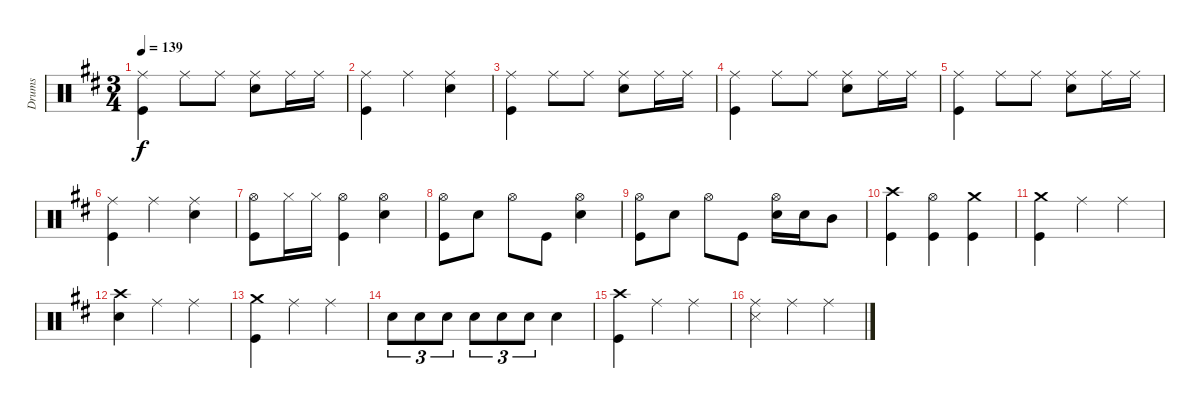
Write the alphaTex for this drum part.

\track ("Drums" "Drums") {instrument percussion}
\staff {score}
\articulation defaults
\ts (3 4)
\tempo 139
\clef neutral
\ks d
("Ride (middle)" "Kick (hit)").4{dy f} "Ride (middle)".8 "Ride (middle)".8 ("Ride (middle)" "Snare (hit) 2").8 "Ride (middle)".16 "Ride (middle)".16 |
("Ride (middle)" "Kick (hit)").4 "Ride (middle)".4 ("Ride (middle)" "Snare (hit) 2").4 |
("Ride (middle)" "Kick (hit)").4 "Ride (middle)".8 "Ride (middle)".8 ("Ride (middle)" "Snare (hit) 2").8 "Ride (middle)".16 "Ride (middle)".16 |
("Ride (middle)" "Kick (hit)").4 "Ride (middle)".8 "Ride (middle)".8 ("Ride (middle)" "Snare (hit) 2").8 "Ride (middle)".16 "Ride (middle)".16 |
("Ride (middle)" "Kick (hit)").4 "Ride (middle)".8 "Ride (middle)".8 ("Ride (middle)" "Snare (hit) 2").8 "Ride (middle)".16 "Ride (middle)".16 |
("Ride (middle)" "Kick (hit)").4 "Ride (middle)".4 ("Ride (middle)" "Snare (hit) 2").4 |
("Hi-Hat (open)" "Kick (hit)").8 "Hi-Hat (closed)".16 "Hi-Hat (closed)".16 ("Hi-Hat (open)" "Kick (hit)").4 ("Hi-Hat (open)" "Snare (hit) 2").4 |
("Hi-Hat (open)" "Kick (hit)").8 "Snare (hit) 2".8 "Hi-Hat (open)".8 "Kick (hit)".8 ("Hi-Hat (open)" "Snare (hit) 2").4 |
("Hi-Hat (open)" "Kick (hit)").8 "Snare (hit) 2".8 "Hi-Hat (open)".8 "Kick (hit)".8 ("Hi-Hat (open)" "Snare (hit) 2").16 "Snare (hit) 2".16 "Mid Tom (hit)".8 |
("Crash high (hit)" "Kick (hit)").4 ("Hi-Hat (open)" "Kick (hit)").4 ("Crash medium (hit)" "Kick (hit)").4 |
("Crash medium (hit)" "Kick (hit)").4 "Ride (middle)".4 "Ride (middle)".4 |
("Crash high (hit)" "Snare (hit) 2").4 "Ride (middle)".4 "Ride (middle)".4 |
("Crash medium (hit)" "Kick (hit)").4 "Ride (middle)".4 "Ride (middle)".4 |
"Snare (hit) 2".8{tu (3 2)} "Snare (hit) 2".8{tu (3 2)} "Snare (hit) 2".8{tu (3 2)} "Snare (hit) 2".8{tu (3 2)} "Snare (hit) 2".8{tu (3 2)} "Snare (hit) 2".8{tu (3 2)} "Snare (hit) 2".4 |
("Crash high (hit)" "Kick (hit)").4 "Ride (middle)".4 "Ride (middle)".4 |
("Ride (middle)" "Snare (side stick) 3").4 "Ride (middle)".4 "Ride (middle)".4
